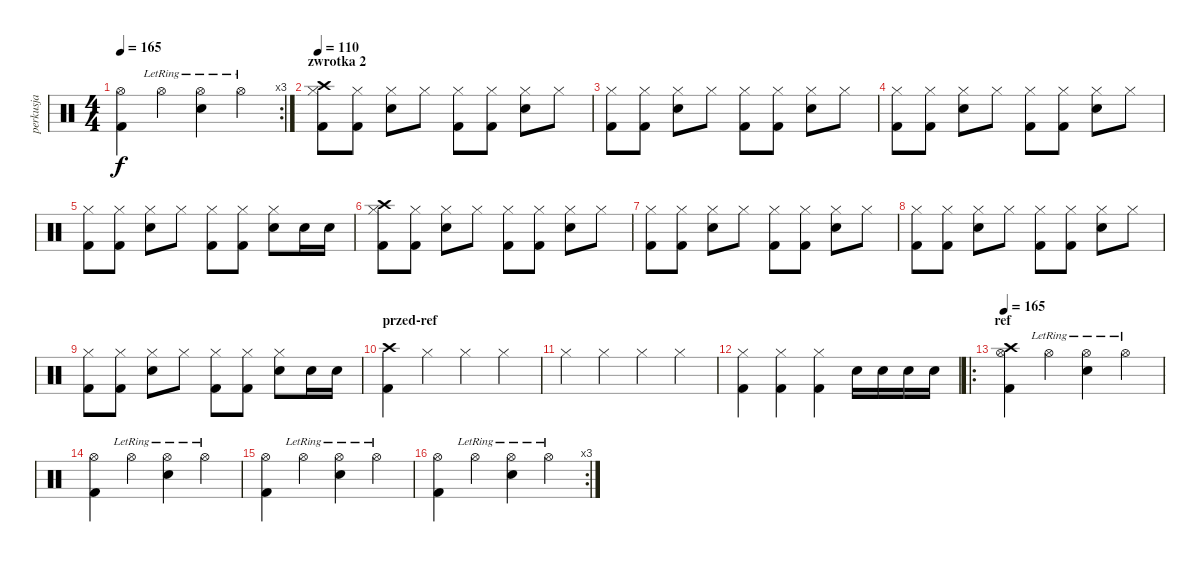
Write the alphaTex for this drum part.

\track ("perkusja" "perkusja") {instrument percussion}
\staff {score}
\articulation defaults
\rc 3
\ts (4 4)
\tempo 165
\clef neutral
\ks c
("Hi-Hat (open)" "Kick (hit) 2").4{dy f} "Hi-Hat (open)"{lr}.4 ("Hi-Hat (open)"{lr} "Electric Snare (hit)").4 "Hi-Hat (open)"{lr}.4 |
\section ("" "zwrotka 2")
\tempo 110
("Hi-Hat (closed)" "Kick (hit) 2" "Crash high (hit)").8 ("Hi-Hat (closed)" "Kick (hit) 2").8 ("Hi-Hat (closed)" "Electric Snare (hit)").8 "Hi-Hat (closed)".8 ("Hi-Hat (closed)" "Kick (hit) 2").8 ("Hi-Hat (closed)" "Kick (hit) 2").8 ("Hi-Hat (closed)" "Electric Snare (hit)").8 "Hi-Hat (closed)".8 |
("Hi-Hat (closed)" "Kick (hit) 2").8 ("Hi-Hat (closed)" "Kick (hit) 2").8 ("Hi-Hat (closed)" "Electric Snare (hit)").8 "Hi-Hat (closed)".8 ("Hi-Hat (closed)" "Kick (hit) 2").8 ("Hi-Hat (closed)" "Kick (hit) 2").8 ("Hi-Hat (closed)" "Electric Snare (hit)").8 "Hi-Hat (closed)".8 |
("Hi-Hat (closed)" "Kick (hit) 2").8 ("Hi-Hat (closed)" "Kick (hit) 2").8 ("Hi-Hat (closed)" "Electric Snare (hit)").8 "Hi-Hat (closed)".8 ("Hi-Hat (closed)" "Kick (hit) 2").8 ("Hi-Hat (closed)" "Kick (hit) 2").8 ("Hi-Hat (closed)" "Electric Snare (hit)").8 "Hi-Hat (closed)".8 |
("Hi-Hat (closed)" "Kick (hit) 2").8 ("Hi-Hat (closed)" "Kick (hit) 2").8 ("Hi-Hat (closed)" "Electric Snare (hit)").8 "Hi-Hat (closed)".8 ("Hi-Hat (closed)" "Kick (hit) 2").8 ("Hi-Hat (closed)" "Kick (hit) 2").8 ("Hi-Hat (closed)" "Electric Snare (hit)").8 "Electric Snare (hit)".16 "Electric Snare (hit)".16 |
("Hi-Hat (closed)" "Kick (hit) 2" "Crash high (hit)").8 ("Hi-Hat (closed)" "Kick (hit) 2").8 ("Hi-Hat (closed)" "Electric Snare (hit)").8 "Hi-Hat (closed)".8 ("Hi-Hat (closed)" "Kick (hit) 2").8 ("Hi-Hat (closed)" "Kick (hit) 2").8 ("Hi-Hat (closed)" "Electric Snare (hit)").8 "Hi-Hat (closed)".8 |
("Hi-Hat (closed)" "Kick (hit) 2").8 ("Hi-Hat (closed)" "Kick (hit) 2").8 ("Hi-Hat (closed)" "Electric Snare (hit)").8 "Hi-Hat (closed)".8 ("Hi-Hat (closed)" "Kick (hit) 2").8 ("Hi-Hat (closed)" "Kick (hit) 2").8 ("Hi-Hat (closed)" "Electric Snare (hit)").8 "Hi-Hat (closed)".8 |
("Hi-Hat (closed)" "Kick (hit) 2").8 ("Hi-Hat (closed)" "Kick (hit) 2").8 ("Hi-Hat (closed)" "Electric Snare (hit)").8 "Hi-Hat (closed)".8 ("Hi-Hat (closed)" "Kick (hit) 2").8 ("Hi-Hat (closed)" "Kick (hit) 2").8 ("Hi-Hat (closed)" "Electric Snare (hit)").8 "Hi-Hat (closed)".8 |
("Hi-Hat (closed)" "Kick (hit) 2").8 ("Hi-Hat (closed)" "Kick (hit) 2").8 ("Hi-Hat (closed)" "Electric Snare (hit)").8 "Hi-Hat (closed)".8 ("Hi-Hat (closed)" "Kick (hit) 2").8 ("Hi-Hat (closed)" "Kick (hit) 2").8 ("Hi-Hat (closed)" "Electric Snare (hit)").8 "Electric Snare (hit)".16 "Electric Snare (hit)".16 |
\section ("" "przed-ref")
("Crash high (hit)" "Kick (hit) 2").4 "Hi-Hat (closed)".4 "Hi-Hat (closed)".4 "Hi-Hat (closed)".4 |
"Hi-Hat (closed)".4 "Hi-Hat (closed)".4 "Hi-Hat (closed)".4 "Hi-Hat (closed)".4 |
("Hi-Hat (closed)" "Kick (hit) 2").4 ("Hi-Hat (closed)" "Kick (hit) 2").4 ("Hi-Hat (closed)" "Kick (hit) 2").4 "Electric Snare (hit)".16 "Electric Snare (hit)".16 "Electric Snare (hit)".16 "Electric Snare (hit)".16 |
\ro
\section ("" "ref")
\tempo 165
("Hi-Hat (open)" "Kick (hit) 2" "Crash high (hit)").4 "Hi-Hat (open)"{lr}.4 ("Hi-Hat (open)"{lr} "Electric Snare (hit)").4 "Hi-Hat (open)"{lr}.4 |
("Hi-Hat (open)" "Kick (hit) 2").4 "Hi-Hat (open)"{lr}.4 ("Hi-Hat (open)"{lr} "Electric Snare (hit)").4 "Hi-Hat (open)"{lr}.4 |
("Hi-Hat (open)" "Kick (hit) 2").4 "Hi-Hat (open)"{lr}.4 ("Hi-Hat (open)"{lr} "Electric Snare (hit)").4 "Hi-Hat (open)"{lr}.4 |
\rc 3
("Hi-Hat (open)" "Kick (hit) 2").4 "Hi-Hat (open)"{lr}.4 ("Hi-Hat (open)"{lr} "Electric Snare (hit)").4 "Hi-Hat (open)"{lr}.4
